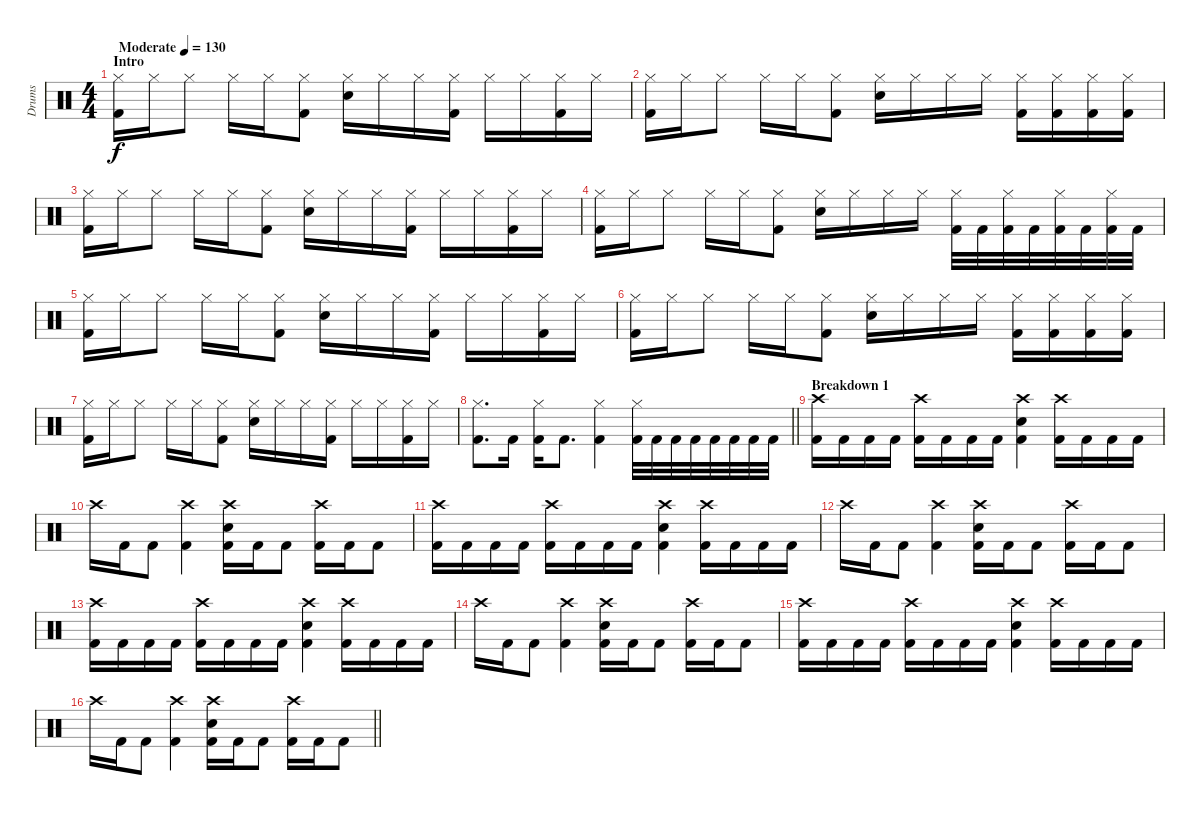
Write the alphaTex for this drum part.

\track ("Drums" "Drums") {instrument percussion}
\staff {score}
\articulation defaults
\ts (4 4)
\section ("" "Intro")
\tempo (130 "Moderate")
\clef neutral
\ks c
("Hi-Hat (closed)" "Kick (hit) 2").16{dy f} "Hi-Hat (closed)".16 "Hi-Hat (closed)".8 "Hi-Hat (closed)".16 "Hi-Hat (closed)".16 ("Hi-Hat (closed)" "Kick (hit) 2").8 ("Hi-Hat (closed)" "Electric Snare (hit)").16 "Hi-Hat (closed)".16 "Hi-Hat (closed)".16 ("Hi-Hat (closed)" "Kick (hit) 2").16 "Hi-Hat (closed)".16 "Hi-Hat (closed)".16 ("Hi-Hat (closed)" "Kick (hit) 2").16 "Hi-Hat (closed)".16 |
("Hi-Hat (closed)" "Kick (hit) 2").16 "Hi-Hat (closed)".16 "Hi-Hat (closed)".8 "Hi-Hat (closed)".16 "Hi-Hat (closed)".16 ("Hi-Hat (closed)" "Kick (hit) 2").8 ("Hi-Hat (closed)" "Electric Snare (hit)").16 "Hi-Hat (closed)".16 "Hi-Hat (closed)".16 "Hi-Hat (closed)".16 ("Hi-Hat (closed)" "Kick (hit) 2").16 ("Hi-Hat (closed)" "Kick (hit) 2").16 ("Hi-Hat (closed)" "Kick (hit) 2").16 ("Hi-Hat (closed)" "Kick (hit) 2").16 |
("Hi-Hat (closed)" "Kick (hit) 2").16 "Hi-Hat (closed)".16 "Hi-Hat (closed)".8 "Hi-Hat (closed)".16 "Hi-Hat (closed)".16 ("Hi-Hat (closed)" "Kick (hit) 2").8 ("Hi-Hat (closed)" "Electric Snare (hit)").16 "Hi-Hat (closed)".16 "Hi-Hat (closed)".16 ("Hi-Hat (closed)" "Kick (hit) 2").16 "Hi-Hat (closed)".16 "Hi-Hat (closed)".16 ("Hi-Hat (closed)" "Kick (hit) 2").16 "Hi-Hat (closed)".16 |
("Hi-Hat (closed)" "Kick (hit) 2").16 "Hi-Hat (closed)".16 "Hi-Hat (closed)".8 "Hi-Hat (closed)".16 "Hi-Hat (closed)".16 ("Hi-Hat (closed)" "Kick (hit) 2").8 ("Hi-Hat (closed)" "Electric Snare (hit)").16 "Hi-Hat (closed)".16 "Hi-Hat (closed)".16 "Hi-Hat (closed)".16 ("Hi-Hat (closed)" "Kick (hit) 2").32 "Kick (hit) 2".32 ("Hi-Hat (closed)" "Kick (hit) 2").32 "Kick (hit) 2".32 ("Hi-Hat (closed)" "Kick (hit) 2").32 "Kick (hit) 2".32 ("Hi-Hat (closed)" "Kick (hit) 2").32 "Kick (hit) 2".32 |
("Hi-Hat (closed)" "Kick (hit) 2").16 "Hi-Hat (closed)".16 "Hi-Hat (closed)".8 "Hi-Hat (closed)".16 "Hi-Hat (closed)".16 ("Hi-Hat (closed)" "Kick (hit) 2").8 ("Hi-Hat (closed)" "Electric Snare (hit)").16 "Hi-Hat (closed)".16 "Hi-Hat (closed)".16 ("Hi-Hat (closed)" "Kick (hit) 2").16 "Hi-Hat (closed)".16 "Hi-Hat (closed)".16 ("Hi-Hat (closed)" "Kick (hit) 2").16 "Hi-Hat (closed)".16 |
("Hi-Hat (closed)" "Kick (hit) 2").16 "Hi-Hat (closed)".16 "Hi-Hat (closed)".8 "Hi-Hat (closed)".16 "Hi-Hat (closed)".16 ("Hi-Hat (closed)" "Kick (hit) 2").8 ("Hi-Hat (closed)" "Electric Snare (hit)").16 "Hi-Hat (closed)".16 "Hi-Hat (closed)".16 "Hi-Hat (closed)".16 ("Hi-Hat (closed)" "Kick (hit) 2").16 ("Hi-Hat (closed)" "Kick (hit) 2").16 ("Hi-Hat (closed)" "Kick (hit) 2").16 ("Hi-Hat (closed)" "Kick (hit) 2").16 |
("Hi-Hat (closed)" "Kick (hit) 2").16 "Hi-Hat (closed)".16 "Hi-Hat (closed)".8 "Hi-Hat (closed)".16 "Hi-Hat (closed)".16 ("Hi-Hat (closed)" "Kick (hit) 2").8 ("Hi-Hat (closed)" "Electric Snare (hit)").16 "Hi-Hat (closed)".16 "Hi-Hat (closed)".16 ("Hi-Hat (closed)" "Kick (hit) 2").16 "Hi-Hat (closed)".16 "Hi-Hat (closed)".16 ("Hi-Hat (closed)" "Kick (hit) 2").16 "Hi-Hat (closed)".16 |
\barLineRight lightlight
("Hi-Hat (closed)" "Kick (hit) 2").8{d} "Kick (hit) 2".16 ("Hi-Hat (closed)" "Kick (hit) 2").16 "Kick (hit) 2".8{d} ("Hi-Hat (closed)" "Kick (hit) 2").4 ("Hi-Hat (closed)" "Kick (hit) 2").32 "Kick (hit) 2".32 "Kick (hit) 2".32 "Kick (hit) 2".32 "Kick (hit) 2".32 "Kick (hit) 2".32 "Kick (hit) 2".32 "Kick (hit) 2".32 |
\section ("" "Breakdown 1")
("Crash high (hit)" "Kick (hit) 2").16 "Kick (hit) 2".16 "Kick (hit) 2".16 "Kick (hit) 2".16 ("Crash high (hit)" "Kick (hit) 2").16 "Kick (hit) 2".16 "Kick (hit) 2".16 "Kick (hit) 2".16 ("Crash high (hit)" "Electric Snare (hit)" "Kick (hit) 2").4 ("Crash high (hit)" "Kick (hit) 2").16 "Kick (hit) 2".16 "Kick (hit) 2".16 "Kick (hit) 2".16 |
"Crash high (hit)".16 "Kick (hit) 2".16 "Kick (hit) 2".8 ("Crash high (hit)" "Kick (hit) 2").4 ("Crash high (hit)" "Electric Snare (hit)" "Kick (hit) 2").16 "Kick (hit) 2".16 "Kick (hit) 2".8 ("Crash high (hit)" "Kick (hit) 2").16 "Kick (hit) 2".16 "Kick (hit) 2".8 |
("Crash high (hit)" "Kick (hit) 2").16 "Kick (hit) 2".16 "Kick (hit) 2".16 "Kick (hit) 2".16 ("Crash high (hit)" "Kick (hit) 2").16 "Kick (hit) 2".16 "Kick (hit) 2".16 "Kick (hit) 2".16 ("Crash high (hit)" "Electric Snare (hit)" "Kick (hit) 2").4 ("Crash high (hit)" "Kick (hit) 2").16 "Kick (hit) 2".16 "Kick (hit) 2".16 "Kick (hit) 2".16 |
"Crash high (hit)".16 "Kick (hit) 2".16 "Kick (hit) 2".8 ("Crash high (hit)" "Kick (hit) 2").4 ("Crash high (hit)" "Electric Snare (hit)" "Kick (hit) 2").16 "Kick (hit) 2".16 "Kick (hit) 2".8 ("Crash high (hit)" "Kick (hit) 2").16 "Kick (hit) 2".16 "Kick (hit) 2".8 |
("Crash high (hit)" "Kick (hit) 2").16 "Kick (hit) 2".16 "Kick (hit) 2".16 "Kick (hit) 2".16 ("Crash high (hit)" "Kick (hit) 2").16 "Kick (hit) 2".16 "Kick (hit) 2".16 "Kick (hit) 2".16 ("Crash high (hit)" "Electric Snare (hit)" "Kick (hit) 2").4 ("Crash high (hit)" "Kick (hit) 2").16 "Kick (hit) 2".16 "Kick (hit) 2".16 "Kick (hit) 2".16 |
"Crash high (hit)".16 "Kick (hit) 2".16 "Kick (hit) 2".8 ("Crash high (hit)" "Kick (hit) 2").4 ("Crash high (hit)" "Electric Snare (hit)" "Kick (hit) 2").16 "Kick (hit) 2".16 "Kick (hit) 2".8 ("Crash high (hit)" "Kick (hit) 2").16 "Kick (hit) 2".16 "Kick (hit) 2".8 |
("Crash high (hit)" "Kick (hit) 2").16 "Kick (hit) 2".16 "Kick (hit) 2".16 "Kick (hit) 2".16 ("Crash high (hit)" "Kick (hit) 2").16 "Kick (hit) 2".16 "Kick (hit) 2".16 "Kick (hit) 2".16 ("Crash high (hit)" "Electric Snare (hit)" "Kick (hit) 2").4 ("Crash high (hit)" "Kick (hit) 2").16 "Kick (hit) 2".16 "Kick (hit) 2".16 "Kick (hit) 2".16 |
\barLineRight lightlight "Crash high (hit)".16 "Kick (hit) 2".16 "Kick (hit) 2".8
("Crash high (hit)" "Kick (hit) 2").4 ("Crash high (hit)" "Electric Snare (hit)" "Kick (hit) 2").16 "Kick (hit) 2".16 "Kick (hit) 2".8 ("Crash high (hit)" "Kick (hit) 2").16 "Kick (hit) 2".16 "Kick (hit) 2".8
